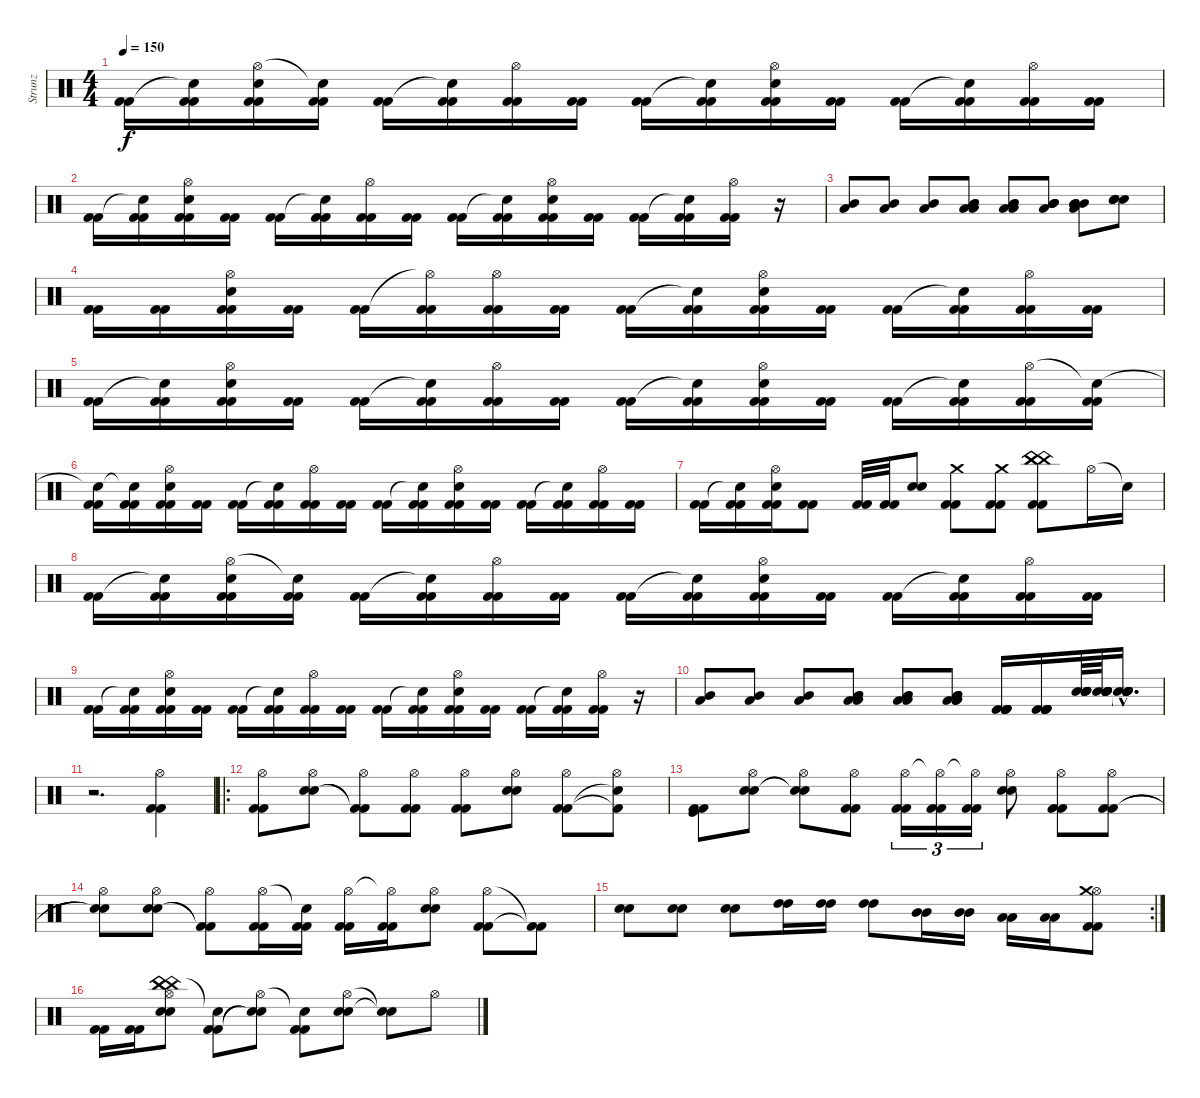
\track ("Strunz" "Strunz") {instrument percussion}
\staff {score}
\articulation defaults
\ts (4 4)
\tempo 150
\clef neutral
\ks c
("Kick (hit) 2" "Kick (hit) 2").16{dy f} ("Snare (hit)"{t} "Kick (hit) 2" "Kick (hit) 2").16 ("Hi-Hat (open)" "Snare (hit) 2" "Kick (hit) 2" "Kick (hit) 2").16 ("Snare (hit)"{t} "Kick (hit) 2" "Kick (hit) 2").16 ("Kick (hit) 2" "Kick (hit) 2").16 ("Snare (hit)"{t} "Kick (hit) 2" "Kick (hit) 2").16 ("Hi-Hat (open)" "Kick (hit) 2" "Kick (hit) 2").16 ("Kick (hit) 2" "Kick (hit) 2").16 ("Kick (hit) 2" "Kick (hit) 2").16 ("Snare (hit)"{t} "Kick (hit) 2" "Kick (hit) 2").16 ("Hi-Hat (open)" "Snare (hit) 2" "Kick (hit) 2" "Kick (hit) 2").16 ("Kick (hit) 2" "Kick (hit) 2").16 ("Kick (hit) 2" "Kick (hit) 2").16 ("Snare (hit)"{t} "Kick (hit) 2" "Kick (hit) 2").16 ("Hi-Hat (open)" "Kick (hit) 2" "Kick (hit) 2").16 ("Kick (hit) 2" "Kick (hit) 2").16 |
("Kick (hit) 2" "Kick (hit) 2").16 ("Snare (hit)"{t} "Kick (hit) 2" "Kick (hit) 2").16 ("Hi-Hat (open)" "Snare (hit) 2" "Kick (hit) 2" "Kick (hit) 2").16 ("Kick (hit) 2" "Kick (hit) 2").16 ("Kick (hit) 2" "Kick (hit) 2").16 ("Snare (hit)"{t} "Kick (hit) 2" "Kick (hit) 2").16 ("Hi-Hat (open)" "Kick (hit) 2" "Kick (hit) 2").16 ("Kick (hit) 2" "Kick (hit) 2").16 ("Kick (hit) 2" "Kick (hit) 2").16 ("Snare (hit)"{t} "Kick (hit) 2" "Kick (hit) 2").16 ("Hi-Hat (open)" "Snare (hit) 2" "Kick (hit) 2" "Kick (hit) 2").16 ("Kick (hit) 2" "Kick (hit) 2").16 ("Kick (hit) 2" "Kick (hit) 2").16 ("Snare (hit)"{t} "Kick (hit) 2" "Kick (hit) 2").16 ("Hi-Hat (open)" "Kick (hit) 2" "Kick (hit) 2").16 r.16 |
("Mid Tom (hit)" "Low Tom (hit)").8 ("Mid Tom (hit)" "Low Tom (hit)").8 ("Mid Tom (hit)" "Low Tom (hit)").8 ("Low Tom (hit)" "Low Tom (hit)" "Mid Tom (hit)" "Mid Tom (hit)").8 ("Low Tom (hit)" "Low Tom (hit)" "Mid Tom (hit)" "Mid Tom (hit)").8 ("Low Tom (hit)" "Mid Tom (hit)" "Mid Tom (hit)" "Mid Tom (hit)").8 ("Low Tom (hit)" "Mid Tom (hit)" "Mid Tom (hit)" "Mid Tom (hit)").8 ("Snare (hit) 2" "Snare (hit) 2" "Snare (hit) 2" "Snare (hit) 2").8 |
("Kick (hit) 2" "Kick (hit) 2").16 ("Kick (hit) 2" "Kick (hit) 2").16 ("Hi-Hat (open)" "Snare (hit) 2" "Kick (hit) 2" "Kick (hit) 2").16 ("Kick (hit) 2" "Kick (hit) 2").16 ("Kick (hit) 2" "Kick (hit) 2").16 ("Hi-Hat (open)"{t} "Kick (hit) 2" "Kick (hit) 2").16 ("Hi-Hat (open)" "Kick (hit) 2" "Kick (hit) 2").16 ("Kick (hit) 2" "Kick (hit) 2").16 ("Kick (hit) 2" "Kick (hit) 2").16 ("Snare (hit)"{t} "Kick (hit) 2" "Kick (hit) 2").16 ("Hi-Hat (open)" "Snare (hit) 2" "Kick (hit) 2" "Kick (hit) 2").16 ("Kick (hit) 2" "Kick (hit) 2").16 ("Kick (hit) 2" "Kick (hit) 2").16 ("Snare (hit)"{t} "Kick (hit) 2" "Kick (hit) 2").16 ("Hi-Hat (open)" "Kick (hit) 2" "Kick (hit) 2").16 ("Kick (hit) 2" "Kick (hit) 2").16 |
("Kick (hit) 2" "Kick (hit) 2").16 ("Snare (hit)"{t} "Kick (hit) 2" "Kick (hit) 2").16 ("Hi-Hat (open)" "Snare (hit) 2" "Kick (hit) 2" "Kick (hit) 2").16 ("Kick (hit) 2" "Kick (hit) 2").16 ("Kick (hit) 2" "Kick (hit) 2").16 ("Snare (hit)"{t} "Kick (hit) 2" "Kick (hit) 2").16 ("Hi-Hat (open)" "Kick (hit) 2" "Kick (hit) 2").16 ("Kick (hit) 2" "Kick (hit) 2").16 ("Kick (hit) 2" "Kick (hit) 2").16 ("Snare (hit)"{t} "Kick (hit) 2" "Kick (hit) 2").16 ("Hi-Hat (open)" "Snare (hit) 2" "Kick (hit) 2" "Kick (hit) 2").16 ("Kick (hit) 2" "Kick (hit) 2").16 ("Kick (hit) 2" "Kick (hit) 2").16 ("Snare (hit)"{t} "Kick (hit) 2" "Kick (hit) 2").16 ("Hi-Hat (open)" "Kick (hit) 2" "Kick (hit) 2").16 ("Snare (hit)"{t} "Kick (hit) 2" "Kick (hit) 2").16 |
("Snare (hit)"{t} "Kick (hit) 2" "Kick (hit) 2").16 ("Snare (hit)"{t} "Kick (hit) 2" "Kick (hit) 2").16 ("Hi-Hat (open)" "Snare (hit) 2" "Kick (hit) 2" "Kick (hit) 2").16 ("Kick (hit) 2" "Kick (hit) 2").16 ("Kick (hit) 2" "Kick (hit) 2").16 ("Snare (hit)"{t} "Kick (hit) 2" "Kick (hit) 2").16 ("Hi-Hat (open)" "Kick (hit) 2" "Kick (hit) 2").16 ("Kick (hit) 2" "Kick (hit) 2").16 ("Kick (hit) 2" "Kick (hit) 2").16 ("Snare (hit)"{t} "Kick (hit) 2" "Kick (hit) 2").16 ("Hi-Hat (open)" "Snare (hit) 2" "Kick (hit) 2" "Kick (hit) 2").16 ("Kick (hit) 2" "Kick (hit) 2").16 ("Kick (hit) 2" "Kick (hit) 2").16 ("Snare (hit)"{t} "Kick (hit) 2" "Kick (hit) 2").16 ("Hi-Hat (open)" "Kick (hit) 2" "Kick (hit) 2").16 ("Kick (hit) 2" "Kick (hit) 2").16 |
("Kick (hit) 2" "Kick (hit) 2").16 ("Snare (hit)"{t} "Kick (hit) 2" "Kick (hit) 2").16 ("Hi-Hat (open)" "Snare (hit) 2" "Kick (hit) 2" "Kick (hit) 2").16 ("Kick (hit) 2" "Kick (hit) 2").8 ("Kick (hit) 2" "Kick (hit) 2").32 ("Kick (hit) 2" "Kick (hit) 2").32 ("Snare (hit) 2" "Snare (hit) 2").8 ("Crash medium (hit)" "Kick (hit) 2" "Kick (hit) 2").8 ("Crash medium (hit)" "Kick (hit) 2" "Kick (hit) 2").8 ("China (hit)" "China (hit)" "China (hit)" "Kick (hit) 2" "Kick (hit) 2").8 "Hi-Hat (open)".16 "Snare (hit)"{t}.16 |
("Kick (hit) 2" "Kick (hit) 2").16 ("Snare (hit)"{t} "Kick (hit) 2" "Kick (hit) 2").16 ("Hi-Hat (open)" "Snare (hit) 2" "Kick (hit) 2" "Kick (hit) 2").16 ("Snare (hit)"{t} "Kick (hit) 2" "Kick (hit) 2").16 ("Kick (hit) 2" "Kick (hit) 2").16 ("Snare (hit)"{t} "Kick (hit) 2" "Kick (hit) 2").16 ("Hi-Hat (open)" "Kick (hit) 2" "Kick (hit) 2").16 ("Kick (hit) 2" "Kick (hit) 2").16 ("Kick (hit) 2" "Kick (hit) 2").16 ("Snare (hit)"{t} "Kick (hit) 2" "Kick (hit) 2").16 ("Hi-Hat (open)" "Snare (hit) 2" "Kick (hit) 2" "Kick (hit) 2").16 ("Kick (hit) 2" "Kick (hit) 2").16 ("Kick (hit) 2" "Kick (hit) 2").16 ("Snare (hit)"{t} "Kick (hit) 2" "Kick (hit) 2").16 ("Hi-Hat (open)" "Kick (hit) 2" "Kick (hit) 2").16 ("Kick (hit) 2" "Kick (hit) 2").16 |
("Kick (hit) 2" "Kick (hit) 2").16 ("Snare (hit)"{t} "Kick (hit) 2" "Kick (hit) 2").16 ("Hi-Hat (open)" "Snare (hit) 2" "Kick (hit) 2" "Kick (hit) 2").16 ("Kick (hit) 2" "Kick (hit) 2").16 ("Kick (hit) 2" "Kick (hit) 2").16 ("Snare (hit)"{t} "Kick (hit) 2" "Kick (hit) 2").16 ("Hi-Hat (open)" "Kick (hit) 2" "Kick (hit) 2").16 ("Kick (hit) 2" "Kick (hit) 2").16 ("Kick (hit) 2" "Kick (hit) 2").16 ("Snare (hit)"{t} "Kick (hit) 2" "Kick (hit) 2").16 ("Hi-Hat (open)" "Snare (hit) 2" "Kick (hit) 2" "Kick (hit) 2").16 ("Kick (hit) 2" "Kick (hit) 2").16 ("Kick (hit) 2" "Kick (hit) 2").16 ("Snare (hit)"{t} "Kick (hit) 2" "Kick (hit) 2").16 ("Hi-Hat (open)" "Kick (hit) 2" "Kick (hit) 2").16 r.16 |
("Mid Tom (hit)" "Low Tom (hit)").8 ("Mid Tom (hit)" "Low Tom (hit)").8 ("Mid Tom (hit)" "Low Tom (hit)").8 ("Low Tom (hit)" "Low Tom (hit)" "Mid Tom (hit)" "Mid Tom (hit)").8 ("Low Tom (hit)" "Low Tom (hit)" "Mid Tom (hit)" "Mid Tom (hit)").8 ("Low Tom (hit)" "Low Tom (hit)" "Low Tom (hit)" "Mid Tom (hit)" "Mid Tom (hit)" "Mid Tom (hit)").8 ("Kick (hit) 2" "Kick (hit) 2" "Kick (hit) 2" "Kick (hit) 2" "Kick (hit) 2" "Kick (hit) 2").16 ("Kick (hit) 2" "Kick (hit) 2" "Kick (hit) 2" "Kick (hit) 2" "Kick (hit) 2" "Kick (hit) 2").16 ("Snare (hit) 2" "Snare (hit) 2" "Snare (hit) 2" "Snare (hit) 2" "Snare (hit) 2" "Snare (hit) 2").64 ("Snare (hit) 2" "Snare (hit) 2" "Snare (hit) 2" "Snare (hit) 2" "Snare (hit) 2" "Snare (hit) 2").64 ("Snare (hit)"{hac t} "Snare (hit)"{hac t} "Snare (hit)"{hac t} "Snare (hit)"{hac t} "Snare (hit)"{hac t} "Snare (hit)"{hac t}).16{d} |
r.2{d} ("Hi-Hat (open)" "Kick (hit) 2" "Kick (hit) 2").4 |
\ro
("Hi-Hat (open)" "Kick (hit) 2" "Kick (hit) 2").8 ("Hi-Hat (open)" "Snare (hit) 2" "Snare (hit) 2").8 ("Hi-Hat (open)" "Kick (hit) 2"{t} "Kick (hit) 2"{t}).8 ("Hi-Hat (open)" "Kick (hit) 2" "Kick (hit) 2").8 ("Hi-Hat (open)" "Kick (hit) 2" "Kick (hit) 2").8 ("Hi-Hat (open)" "Snare (hit) 2" "Snare (hit) 2").8 ("Hi-Hat (open)" "Kick (hit) 2" "Kick (hit) 2").8 ("Hi-Hat (open)" "Kick (hit) 2"{t} "Snare (hit)"{t}).8 |
("Kick (hit)" "Kick (hit) 2" "Kick (hit) 2").8 ("Hi-Hat (open)" "Snare (hit) 2" "Snare (hit) 2").8 ("Hi-Hat (open)" "Snare (hit)"{t} "Snare (hit)"{t}).8 ("Hi-Hat (open)" "Kick (hit) 2" "Kick (hit) 2").8 ("Hi-Hat (open)" "Kick (hit) 2" "Kick (hit) 2").16{tu (3 2)} ("Hi-Hat (open)"{t} "Kick (hit) 2" "Kick (hit) 2").16{tu (3 2)} ("Hi-Hat (open)"{t} "Kick (hit) 2" "Kick (hit) 2").16{tu (3 2)} ("Hi-Hat (open)" "Snare (hit) 2" "Snare (hit) 2").8 ("Hi-Hat (open)" "Kick (hit) 2" "Kick (hit) 2").8 ("Hi-Hat (open)" "Kick (hit) 2" "Kick (hit) 2").8 |
("Hi-Hat (open)" "Snare (hit) 2"{t} "Snare (hit) 2"{t}).8 ("Hi-Hat (open)" "Snare (hit) 2" "Snare (hit) 2").8 ("Hi-Hat (open)" "Kick (hit) 2"{t} "Kick (hit) 2"{t}).8 ("Hi-Hat (open)" "Kick (hit) 2" "Kick (hit) 2").16 ("Snare (hit)"{t} "Kick (hit) 2" "Kick (hit) 2").16 ("Hi-Hat (open)" "Kick (hit) 2" "Kick (hit) 2").16 ("Hi-Hat (open)"{t} "Kick (hit) 2" "Kick (hit) 2").16 ("Hi-Hat (open)" "Snare (hit) 2" "Snare (hit) 2").8 ("Hi-Hat (open)" "Kick (hit) 2" "Kick (hit) 2").8 ("Kick (hit) 2"{t} "Kick (hit) 2"{t}).8 |
\rc 2
("Snare (hit) 2" "Snare (hit) 2").8 ("Snare (hit) 2" "Snare (hit) 2").8 ("Snare (hit) 2" "Snare (hit) 2").8 ("High Tom (hit)" "High Tom (hit)").16 ("High Tom (hit)" "High Tom (hit)").16 ("High Tom (hit)" "High Tom (hit)").8 ("Mid Tom (hit)" "Mid Tom (hit)").16 ("Mid Tom (hit)" "Mid Tom (hit)").16 ("Low Tom (hit)" "Low Tom (hit)").16 ("Low Tom (hit)" "Low Tom (hit)").16 ("Hi-Hat (open)" "Crash medium (hit)" "Kick (hit) 2" "Kick (hit) 2").8 |
("Kick (hit) 2" "Kick (hit) 2").16 ("Kick (hit) 2" "Kick (hit) 2").16 ("China (hit)" "Hi-Hat (open)" "China (hit)" "Snare (hit) 2" "Snare (hit) 2" "China (hit)").8 ("Snare (hit)"{t} "Kick (hit) 2" "Kick (hit) 2").8 ("Hi-Hat (open)" "Snare (hit)"{t} "Snare (hit)"{t}).8 ("Snare (hit)"{t} "Kick (hit) 2" "Kick (hit) 2").8 ("Hi-Hat (open)" "Snare (hit) 2" "Snare (hit) 2").8 ("Snare (hit)"{t} "Snare (hit)"{t}).8 "Hi-Hat (open)".8
